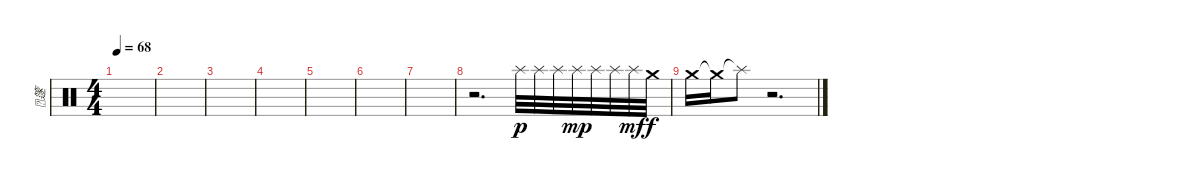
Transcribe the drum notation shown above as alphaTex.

\track ("篴" "篴") {instrument percussion}
\staff {score}
\articulation defaults
\ts (4 4)
\tempo 68
\clef neutral
\ks c
|
|
|
|
|
|
|
r.2{d} "Splash (hit)".32{dy p} "Splash (hit)".32 "Splash (hit)".32 "Splash (hit)".32{dy mp} "Splash (hit)".32 "Splash (hit)".32 "Splash (hit)".32{dy mf} "Crash medium (hit)".32{dy f} |
"Crash medium (hit)".16 "Crash medium (hit)"{t}.16 "Splash (hit)"{t}.8 r.2{d}
